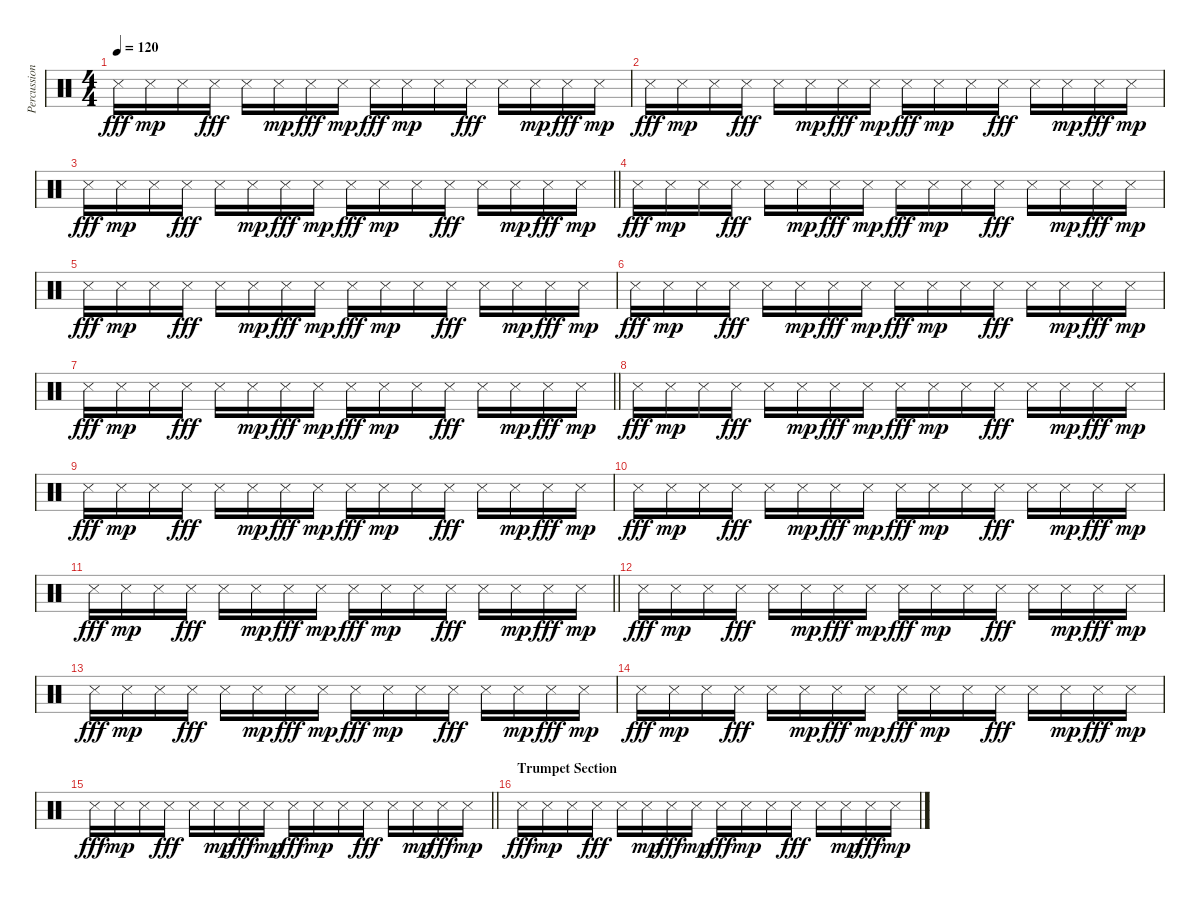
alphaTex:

\track ("Percussions" "Percussion") {instrument percussion}
\staff {score}
\articulation defaults
\ts (4 4)
\tempo 120
\clef neutral
\ks c "Snare (side stick) 3".16{dy fff} "Snare (side stick) 3".16{dy mp} "Snare (side stick) 3".16 "Snare (side stick) 3".16{dy fff} "Snare (side stick) 3".16 "Snare (side stick) 3".16{dy mp} "Snare (side stick) 3".16{dy fff} "Snare (side stick) 3".16{dy mp} "Snare (side stick) 3".16{dy fff} "Snare (side stick) 3".16{dy mp} "Snare (side stick) 3".16 "Snare (side stick) 3".16{dy fff} "Snare (side stick) 3".16 "Snare (side stick) 3".16{dy mp} "Snare (side stick) 3".16{dy fff} "Snare (side stick) 3".16{dy mp}
|
"Snare (side stick) 3".16{dy fff} "Snare (side stick) 3".16{dy mp} "Snare (side stick) 3".16 "Snare (side stick) 3".16{dy fff} "Snare (side stick) 3".16 "Snare (side stick) 3".16{dy mp} "Snare (side stick) 3".16{dy fff} "Snare (side stick) 3".16{dy mp} "Snare (side stick) 3".16{dy fff} "Snare (side stick) 3".16{dy mp} "Snare (side stick) 3".16 "Snare (side stick) 3".16{dy fff} "Snare (side stick) 3".16 "Snare (side stick) 3".16{dy mp} "Snare (side stick) 3".16{dy fff} "Snare (side stick) 3".16{dy mp} |
\barLineRight lightlight "Snare (side stick) 3".16{dy fff} "Snare (side stick) 3".16{dy mp} "Snare (side stick) 3".16 "Snare (side stick) 3".16{dy fff} "Snare (side stick) 3".16 "Snare (side stick) 3".16{dy mp} "Snare (side stick) 3".16{dy fff} "Snare (side stick) 3".16{dy mp} "Snare (side stick) 3".16{dy fff} "Snare (side stick) 3".16{dy mp} "Snare (side stick) 3".16 "Snare (side stick) 3".16{dy fff} "Snare (side stick) 3".16 "Snare (side stick) 3".16{dy mp} "Snare (side stick) 3".16{dy fff} "Snare (side stick) 3".16{dy mp}
|
"Snare (side stick) 3".16{dy fff} "Snare (side stick) 3".16{dy mp} "Snare (side stick) 3".16 "Snare (side stick) 3".16{dy fff} "Snare (side stick) 3".16 "Snare (side stick) 3".16{dy mp} "Snare (side stick) 3".16{dy fff} "Snare (side stick) 3".16{dy mp} "Snare (side stick) 3".16{dy fff} "Snare (side stick) 3".16{dy mp} "Snare (side stick) 3".16 "Snare (side stick) 3".16{dy fff} "Snare (side stick) 3".16 "Snare (side stick) 3".16{dy mp} "Snare (side stick) 3".16{dy fff} "Snare (side stick) 3".16{dy mp} |
"Snare (side stick) 3".16{dy fff} "Snare (side stick) 3".16{dy mp} "Snare (side stick) 3".16 "Snare (side stick) 3".16{dy fff} "Snare (side stick) 3".16 "Snare (side stick) 3".16{dy mp} "Snare (side stick) 3".16{dy fff} "Snare (side stick) 3".16{dy mp} "Snare (side stick) 3".16{dy fff} "Snare (side stick) 3".16{dy mp} "Snare (side stick) 3".16 "Snare (side stick) 3".16{dy fff} "Snare (side stick) 3".16 "Snare (side stick) 3".16{dy mp} "Snare (side stick) 3".16{dy fff} "Snare (side stick) 3".16{dy mp} |
"Snare (side stick) 3".16{dy fff} "Snare (side stick) 3".16{dy mp} "Snare (side stick) 3".16 "Snare (side stick) 3".16{dy fff} "Snare (side stick) 3".16 "Snare (side stick) 3".16{dy mp} "Snare (side stick) 3".16{dy fff} "Snare (side stick) 3".16{dy mp} "Snare (side stick) 3".16{dy fff} "Snare (side stick) 3".16{dy mp} "Snare (side stick) 3".16 "Snare (side stick) 3".16{dy fff} "Snare (side stick) 3".16 "Snare (side stick) 3".16{dy mp} "Snare (side stick) 3".16{dy fff} "Snare (side stick) 3".16{dy mp} |
\barLineRight lightlight "Snare (side stick) 3".16{dy fff} "Snare (side stick) 3".16{dy mp} "Snare (side stick) 3".16 "Snare (side stick) 3".16{dy fff} "Snare (side stick) 3".16 "Snare (side stick) 3".16{dy mp} "Snare (side stick) 3".16{dy fff} "Snare (side stick) 3".16{dy mp} "Snare (side stick) 3".16{dy fff} "Snare (side stick) 3".16{dy mp} "Snare (side stick) 3".16 "Snare (side stick) 3".16{dy fff} "Snare (side stick) 3".16 "Snare (side stick) 3".16{dy mp} "Snare (side stick) 3".16{dy fff} "Snare (side stick) 3".16{dy mp}
|
"Snare (side stick) 3".16{dy fff} "Snare (side stick) 3".16{dy mp} "Snare (side stick) 3".16 "Snare (side stick) 3".16{dy fff} "Snare (side stick) 3".16 "Snare (side stick) 3".16{dy mp} "Snare (side stick) 3".16{dy fff} "Snare (side stick) 3".16{dy mp} "Snare (side stick) 3".16{dy fff} "Snare (side stick) 3".16{dy mp} "Snare (side stick) 3".16 "Snare (side stick) 3".16{dy fff} "Snare (side stick) 3".16 "Snare (side stick) 3".16{dy mp} "Snare (side stick) 3".16{dy fff} "Snare (side stick) 3".16{dy mp} |
"Snare (side stick) 3".16{dy fff} "Snare (side stick) 3".16{dy mp} "Snare (side stick) 3".16 "Snare (side stick) 3".16{dy fff} "Snare (side stick) 3".16 "Snare (side stick) 3".16{dy mp} "Snare (side stick) 3".16{dy fff} "Snare (side stick) 3".16{dy mp} "Snare (side stick) 3".16{dy fff} "Snare (side stick) 3".16{dy mp} "Snare (side stick) 3".16 "Snare (side stick) 3".16{dy fff} "Snare (side stick) 3".16 "Snare (side stick) 3".16{dy mp} "Snare (side stick) 3".16{dy fff} "Snare (side stick) 3".16{dy mp} |
"Snare (side stick) 3".16{dy fff} "Snare (side stick) 3".16{dy mp} "Snare (side stick) 3".16 "Snare (side stick) 3".16{dy fff} "Snare (side stick) 3".16 "Snare (side stick) 3".16{dy mp} "Snare (side stick) 3".16{dy fff} "Snare (side stick) 3".16{dy mp} "Snare (side stick) 3".16{dy fff} "Snare (side stick) 3".16{dy mp} "Snare (side stick) 3".16 "Snare (side stick) 3".16{dy fff} "Snare (side stick) 3".16 "Snare (side stick) 3".16{dy mp} "Snare (side stick) 3".16{dy fff} "Snare (side stick) 3".16{dy mp} |
\barLineRight lightlight "Snare (side stick) 3".16{dy fff} "Snare (side stick) 3".16{dy mp} "Snare (side stick) 3".16 "Snare (side stick) 3".16{dy fff} "Snare (side stick) 3".16 "Snare (side stick) 3".16{dy mp} "Snare (side stick) 3".16{dy fff} "Snare (side stick) 3".16{dy mp} "Snare (side stick) 3".16{dy fff} "Snare (side stick) 3".16{dy mp} "Snare (side stick) 3".16 "Snare (side stick) 3".16{dy fff} "Snare (side stick) 3".16 "Snare (side stick) 3".16{dy mp} "Snare (side stick) 3".16{dy fff} "Snare (side stick) 3".16{dy mp}
|
"Snare (side stick) 3".16{dy fff} "Snare (side stick) 3".16{dy mp} "Snare (side stick) 3".16 "Snare (side stick) 3".16{dy fff} "Snare (side stick) 3".16 "Snare (side stick) 3".16{dy mp} "Snare (side stick) 3".16{dy fff} "Snare (side stick) 3".16{dy mp} "Snare (side stick) 3".16{dy fff} "Snare (side stick) 3".16{dy mp} "Snare (side stick) 3".16 "Snare (side stick) 3".16{dy fff} "Snare (side stick) 3".16 "Snare (side stick) 3".16{dy mp} "Snare (side stick) 3".16{dy fff} "Snare (side stick) 3".16{dy mp} |
"Snare (side stick) 3".16{dy fff} "Snare (side stick) 3".16{dy mp} "Snare (side stick) 3".16 "Snare (side stick) 3".16{dy fff} "Snare (side stick) 3".16 "Snare (side stick) 3".16{dy mp} "Snare (side stick) 3".16{dy fff} "Snare (side stick) 3".16{dy mp} "Snare (side stick) 3".16{dy fff} "Snare (side stick) 3".16{dy mp} "Snare (side stick) 3".16 "Snare (side stick) 3".16{dy fff} "Snare (side stick) 3".16 "Snare (side stick) 3".16{dy mp} "Snare (side stick) 3".16{dy fff} "Snare (side stick) 3".16{dy mp} |
"Snare (side stick) 3".16{dy fff} "Snare (side stick) 3".16{dy mp} "Snare (side stick) 3".16 "Snare (side stick) 3".16{dy fff} "Snare (side stick) 3".16 "Snare (side stick) 3".16{dy mp} "Snare (side stick) 3".16{dy fff} "Snare (side stick) 3".16{dy mp} "Snare (side stick) 3".16{dy fff} "Snare (side stick) 3".16{dy mp} "Snare (side stick) 3".16 "Snare (side stick) 3".16{dy fff} "Snare (side stick) 3".16 "Snare (side stick) 3".16{dy mp} "Snare (side stick) 3".16{dy fff} "Snare (side stick) 3".16{dy mp} |
\barLineRight lightlight "Snare (side stick) 3".16{dy fff} "Snare (side stick) 3".16{dy mp} "Snare (side stick) 3".16 "Snare (side stick) 3".16{dy fff} "Snare (side stick) 3".16 "Snare (side stick) 3".16{dy mp} "Snare (side stick) 3".16{dy fff} "Snare (side stick) 3".16{dy mp} "Snare (side stick) 3".16{dy fff} "Snare (side stick) 3".16{dy mp} "Snare (side stick) 3".16 "Snare (side stick) 3".16{dy fff} "Snare (side stick) 3".16 "Snare (side stick) 3".16{dy mp} "Snare (side stick) 3".16{dy fff} "Snare (side stick) 3".16{dy mp}
|
\section ("" "Trumpet Section")
"Snare (side stick) 3".16{dy fff} "Snare (side stick) 3".16{dy mp} "Snare (side stick) 3".16 "Snare (side stick) 3".16{dy fff} "Snare (side stick) 3".16 "Snare (side stick) 3".16{dy mp} "Snare (side stick) 3".16{dy fff} "Snare (side stick) 3".16{dy mp} "Snare (side stick) 3".16{dy fff} "Snare (side stick) 3".16{dy mp} "Snare (side stick) 3".16 "Snare (side stick) 3".16{dy fff} "Snare (side stick) 3".16 "Snare (side stick) 3".16{dy mp} "Snare (side stick) 3".16{dy fff} "Snare (side stick) 3".16{dy mp}
